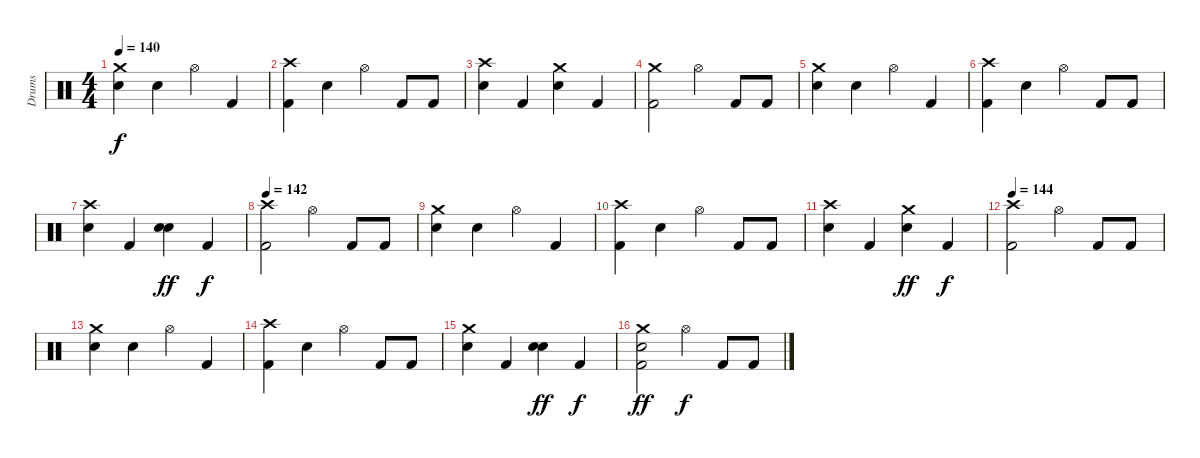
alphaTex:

\track ("Drums" "Drums") {instrument percussion}
\staff {score}
\articulation defaults
\ts (4 4)
\tempo 140
\clef neutral
\ks c
("Crash medium (hit)" "Electric Snare (hit)").4{dy f} "Electric Snare (hit)".4 "Hi-Hat (open)".4 "Kick (hit) 2".4 |
("Crash high (hit)" "Kick (hit) 2").4 "Electric Snare (hit)".4 "Hi-Hat (open)".4 "Kick (hit) 2".8 "Kick (hit) 2".8 |
("Crash high (hit)" "Electric Snare (hit)").4 "Kick (hit) 2".4 ("Crash medium (hit)" "Electric Snare (hit)").4 "Kick (hit) 2".4 |
("Crash medium (hit)" "Kick (hit) 2").2 "Hi-Hat (open)".4 "Kick (hit) 2".8 "Kick (hit) 2".8 |
("Crash medium (hit)" "Electric Snare (hit)").4 "Electric Snare (hit)".4 "Hi-Hat (open)".4 "Kick (hit) 2".4 |
("Crash high (hit)" "Kick (hit) 2").4 "Electric Snare (hit)".4 "Hi-Hat (open)".4 "Kick (hit) 2".8 "Kick (hit) 2".8 |
("Crash high (hit)" "Electric Snare (hit)").4 "Kick (hit) 2".4 ("Electric Snare (hit)" "Electric Snare (hit)").4{bu 60 dy ff} "Kick (hit) 2".4{dy f} |
\tempo 142
("Crash high (hit)" "Kick (hit) 2").2 "Hi-Hat (open)".4 "Kick (hit) 2".8 "Kick (hit) 2".8 |
("Crash medium (hit)" "Electric Snare (hit)").4 "Electric Snare (hit)".4 "Hi-Hat (open)".4 "Kick (hit) 2".4 |
("Crash high (hit)" "Kick (hit) 2").4 "Electric Snare (hit)".4 "Hi-Hat (open)".4 "Kick (hit) 2".8 "Kick (hit) 2".8 |
("Crash high (hit)" "Electric Snare (hit)").4 "Kick (hit) 2".4 ("Crash medium (hit)" "Electric Snare (hit)").4{dy ff} "Kick (hit) 2".4{dy f} |
\tempo 144
("Crash high (hit)" "Kick (hit) 2").2 "Hi-Hat (open)".4 "Kick (hit) 2".8 "Kick (hit) 2".8 |
("Crash medium (hit)" "Electric Snare (hit)").4 "Electric Snare (hit)".4 "Hi-Hat (open)".4 "Kick (hit) 2".4 |
("Crash high (hit)" "Kick (hit) 2").4 "Electric Snare (hit)".4 "Hi-Hat (open)".4 "Kick (hit) 2".8 "Kick (hit) 2".8 |
("Crash medium (hit)" "Electric Snare (hit)").4 "Kick (hit) 2".4 ("Electric Snare (hit)" "Electric Snare (hit)").4{bu 60 dy ff} "Kick (hit) 2".4{dy f} |
("Crash medium (hit)" "Electric Snare (hit)" "Kick (hit) 2").2{dy ff volume 8} "Hi-Hat (open)".4{dy f} "Kick (hit) 2".8 "Kick (hit) 2".8
